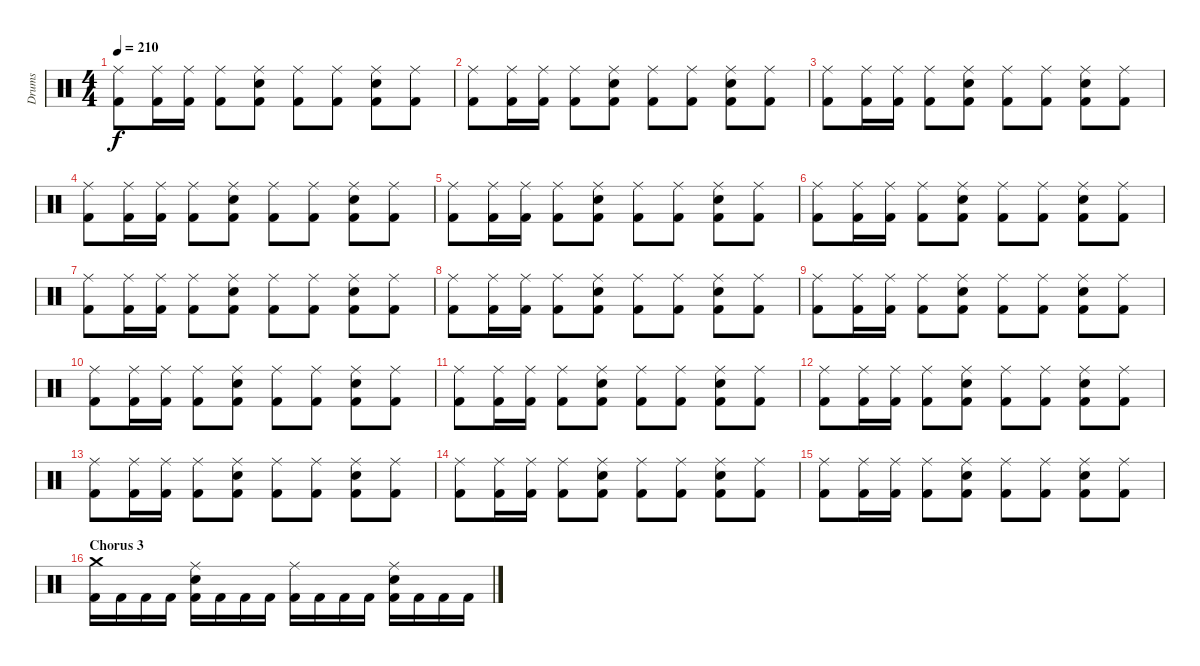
\track ("Drums" "Drums") {instrument percussion}
\staff {score}
\articulation defaults
\ts (4 4)
\tempo 210
\clef neutral
\ks c
("Ride (middle)" "Kick (hit) 2").8{dy f} ("Ride (middle)" "Kick (hit) 2").16 ("Ride (middle)" "Kick (hit) 2").16 ("Ride (middle)" "Kick (hit) 2").8 ("Ride (middle)" "Snare (hit) 2" "Kick (hit) 2").8 ("Ride (middle)" "Kick (hit) 2").8 ("Ride (middle)" "Kick (hit) 2").8 ("Ride (middle)" "Snare (hit) 2" "Kick (hit) 2").8 ("Ride (middle)" "Kick (hit) 2").8 |
("Ride (middle)" "Kick (hit) 2").8 ("Ride (middle)" "Kick (hit) 2").16 ("Ride (middle)" "Kick (hit) 2").16 ("Ride (middle)" "Kick (hit) 2").8 ("Ride (middle)" "Snare (hit) 2" "Kick (hit) 2").8 ("Ride (middle)" "Kick (hit) 2").8 ("Ride (middle)" "Kick (hit) 2").8 ("Ride (middle)" "Snare (hit) 2" "Kick (hit) 2").8 ("Ride (middle)" "Kick (hit) 2").8 |
("Ride (middle)" "Kick (hit) 2").8 ("Ride (middle)" "Kick (hit) 2").16 ("Ride (middle)" "Kick (hit) 2").16 ("Ride (middle)" "Kick (hit) 2").8 ("Ride (middle)" "Snare (hit) 2" "Kick (hit) 2").8 ("Ride (middle)" "Kick (hit) 2").8 ("Ride (middle)" "Kick (hit) 2").8 ("Ride (middle)" "Snare (hit) 2" "Kick (hit) 2").8 ("Ride (middle)" "Kick (hit) 2").8 |
("Ride (middle)" "Kick (hit) 2").8 ("Ride (middle)" "Kick (hit) 2").16 ("Ride (middle)" "Kick (hit) 2").16 ("Ride (middle)" "Kick (hit) 2").8 ("Ride (middle)" "Snare (hit) 2" "Kick (hit) 2").8 ("Ride (middle)" "Kick (hit) 2").8 ("Ride (middle)" "Kick (hit) 2").8 ("Ride (middle)" "Snare (hit) 2" "Kick (hit) 2").8 ("Ride (middle)" "Kick (hit) 2").8 |
("Ride (middle)" "Kick (hit) 2").8 ("Ride (middle)" "Kick (hit) 2").16 ("Ride (middle)" "Kick (hit) 2").16 ("Ride (middle)" "Kick (hit) 2").8 ("Ride (middle)" "Snare (hit) 2" "Kick (hit) 2").8 ("Ride (middle)" "Kick (hit) 2").8 ("Ride (middle)" "Kick (hit) 2").8 ("Ride (middle)" "Snare (hit) 2" "Kick (hit) 2").8 ("Ride (middle)" "Kick (hit) 2").8 |
("Ride (middle)" "Kick (hit) 2").8 ("Ride (middle)" "Kick (hit) 2").16 ("Ride (middle)" "Kick (hit) 2").16 ("Ride (middle)" "Kick (hit) 2").8 ("Ride (middle)" "Snare (hit) 2" "Kick (hit) 2").8 ("Ride (middle)" "Kick (hit) 2").8 ("Ride (middle)" "Kick (hit) 2").8 ("Ride (middle)" "Snare (hit) 2" "Kick (hit) 2").8 ("Ride (middle)" "Kick (hit) 2").8 |
("Ride (middle)" "Kick (hit) 2").8 ("Ride (middle)" "Kick (hit) 2").16 ("Ride (middle)" "Kick (hit) 2").16 ("Ride (middle)" "Kick (hit) 2").8 ("Ride (middle)" "Snare (hit) 2" "Kick (hit) 2").8 ("Ride (middle)" "Kick (hit) 2").8 ("Ride (middle)" "Kick (hit) 2").8 ("Ride (middle)" "Snare (hit) 2" "Kick (hit) 2").8 ("Ride (middle)" "Kick (hit) 2").8 |
("Ride (middle)" "Kick (hit) 2").8 ("Ride (middle)" "Kick (hit) 2").16 ("Ride (middle)" "Kick (hit) 2").16 ("Ride (middle)" "Kick (hit) 2").8 ("Ride (middle)" "Snare (hit) 2" "Kick (hit) 2").8 ("Ride (middle)" "Kick (hit) 2").8 ("Ride (middle)" "Kick (hit) 2").8 ("Ride (middle)" "Snare (hit) 2" "Kick (hit) 2").8 ("Ride (middle)" "Kick (hit) 2").8 |
("Ride (middle)" "Kick (hit) 2").8 ("Ride (middle)" "Kick (hit) 2").16 ("Ride (middle)" "Kick (hit) 2").16 ("Ride (middle)" "Kick (hit) 2").8 ("Ride (middle)" "Snare (hit) 2" "Kick (hit) 2").8 ("Ride (middle)" "Kick (hit) 2").8 ("Ride (middle)" "Kick (hit) 2").8 ("Ride (middle)" "Snare (hit) 2" "Kick (hit) 2").8 ("Ride (middle)" "Kick (hit) 2").8 |
("Ride (middle)" "Kick (hit) 2").8 ("Ride (middle)" "Kick (hit) 2").16 ("Ride (middle)" "Kick (hit) 2").16 ("Ride (middle)" "Kick (hit) 2").8 ("Ride (middle)" "Snare (hit) 2" "Kick (hit) 2").8 ("Ride (middle)" "Kick (hit) 2").8 ("Ride (middle)" "Kick (hit) 2").8 ("Ride (middle)" "Snare (hit) 2" "Kick (hit) 2").8 ("Ride (middle)" "Kick (hit) 2").8 |
("Ride (middle)" "Kick (hit) 2").8 ("Ride (middle)" "Kick (hit) 2").16 ("Ride (middle)" "Kick (hit) 2").16 ("Ride (middle)" "Kick (hit) 2").8 ("Ride (middle)" "Snare (hit) 2" "Kick (hit) 2").8 ("Ride (middle)" "Kick (hit) 2").8 ("Ride (middle)" "Kick (hit) 2").8 ("Ride (middle)" "Snare (hit) 2" "Kick (hit) 2").8 ("Ride (middle)" "Kick (hit) 2").8 |
("Ride (middle)" "Kick (hit) 2").8 ("Ride (middle)" "Kick (hit) 2").16 ("Ride (middle)" "Kick (hit) 2").16 ("Ride (middle)" "Kick (hit) 2").8 ("Ride (middle)" "Snare (hit) 2" "Kick (hit) 2").8 ("Ride (middle)" "Kick (hit) 2").8 ("Ride (middle)" "Kick (hit) 2").8 ("Ride (middle)" "Snare (hit) 2" "Kick (hit) 2").8 ("Ride (middle)" "Kick (hit) 2").8 |
("Ride (middle)" "Kick (hit) 2").8 ("Ride (middle)" "Kick (hit) 2").16 ("Ride (middle)" "Kick (hit) 2").16 ("Ride (middle)" "Kick (hit) 2").8 ("Ride (middle)" "Snare (hit) 2" "Kick (hit) 2").8 ("Ride (middle)" "Kick (hit) 2").8 ("Ride (middle)" "Kick (hit) 2").8 ("Ride (middle)" "Snare (hit) 2" "Kick (hit) 2").8 ("Ride (middle)" "Kick (hit) 2").8 |
("Ride (middle)" "Kick (hit) 2").8 ("Ride (middle)" "Kick (hit) 2").16 ("Ride (middle)" "Kick (hit) 2").16 ("Ride (middle)" "Kick (hit) 2").8 ("Ride (middle)" "Snare (hit) 2" "Kick (hit) 2").8 ("Ride (middle)" "Kick (hit) 2").8 ("Ride (middle)" "Kick (hit) 2").8 ("Ride (middle)" "Snare (hit) 2" "Kick (hit) 2").8 ("Ride (middle)" "Kick (hit) 2").8 |
("Ride (middle)" "Kick (hit) 2").8 ("Ride (middle)" "Kick (hit) 2").16 ("Ride (middle)" "Kick (hit) 2").16 ("Ride (middle)" "Kick (hit) 2").8 ("Ride (middle)" "Snare (hit) 2" "Kick (hit) 2").8 ("Ride (middle)" "Kick (hit) 2").8 ("Ride (middle)" "Kick (hit) 2").8 ("Ride (middle)" "Snare (hit) 2" "Kick (hit) 2").8 ("Ride (middle)" "Kick (hit) 2").8 |
\section ("" "Chorus 3")
("Crash medium (hit)" "Kick (hit) 2").16 "Kick (hit) 2".16 "Kick (hit) 2".16 "Kick (hit) 2".16 ("Ride (middle)" "Snare (hit) 2" "Kick (hit) 2").16 "Kick (hit) 2".16 "Kick (hit) 2".16 "Kick (hit) 2".16 ("Ride (middle)" "Kick (hit) 2").16 "Kick (hit) 2".16 "Kick (hit) 2".16 "Kick (hit) 2".16 ("Ride (middle)" "Snare (hit) 2" "Kick (hit) 2").16 "Kick (hit) 2".16 "Kick (hit) 2".16 "Kick (hit) 2".16
